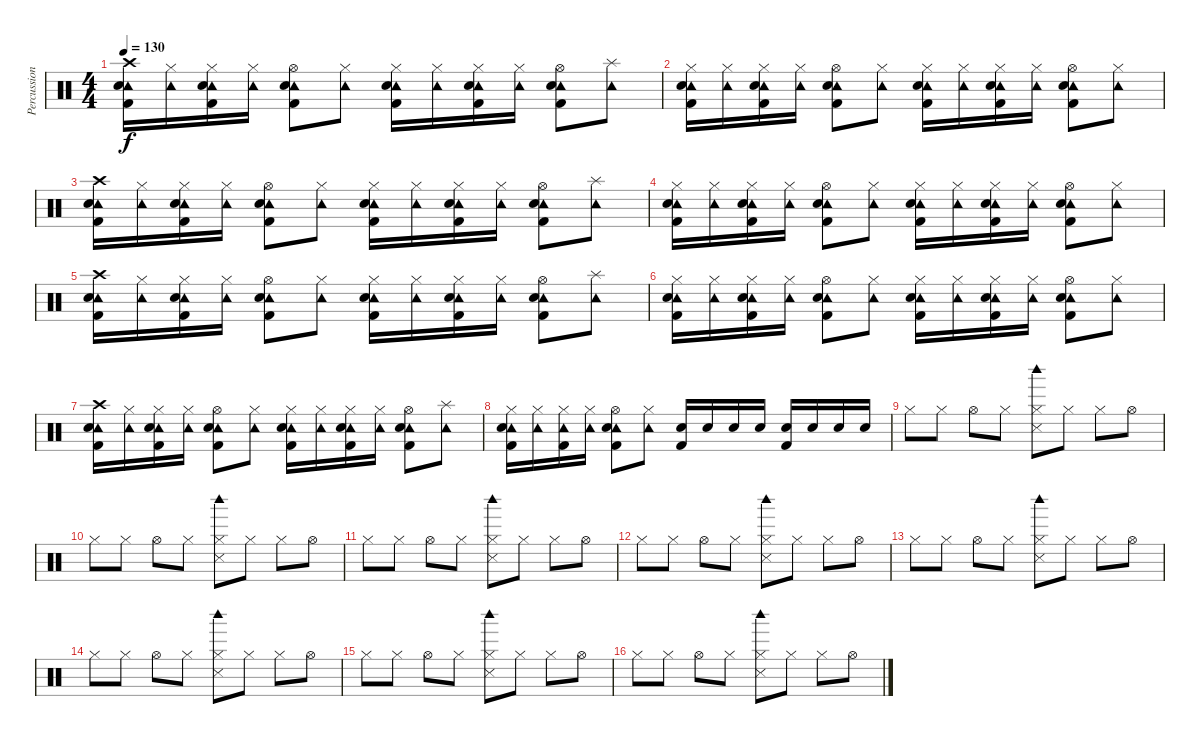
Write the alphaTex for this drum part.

\track ("Percussion" "Percussion") {instrument percussion}
\staff {score}
\articulation defaults
\ts (4 4)
\tempo 130
\clef neutral
\ks c
("Crash high (hit)" "Tambourine (hit)" "Electric Snare (hit)" "Kick (hit) 2").16{dy f volume 16} ("Hi-Hat (closed)" "Tambourine (hit)").16 ("Hi-Hat (closed)" "Tambourine (hit)" "Electric Snare (hit)" "Kick (hit) 2").16 ("Hi-Hat (closed)" "Tambourine (hit)").16 ("Hi-Hat (open)" "Tambourine (hit)" "Electric Snare (hit)" "Kick (hit) 2").8 ("Hi-Hat (closed)" "Tambourine (hit)").8 ("Hi-Hat (closed)" "Tambourine (hit)" "Electric Snare (hit)" "Kick (hit) 2").16 ("Hi-Hat (closed)" "Tambourine (hit)").16 ("Hi-Hat (closed)" "Tambourine (hit)" "Electric Snare (hit)" "Kick (hit) 2").16 ("Hi-Hat (closed)" "Tambourine (hit)").16 ("Hi-Hat (open)" "Tambourine (hit)" "Electric Snare (hit)" "Kick (hit) 2").8 ("Splash (hit)" "Tambourine (hit)").8 |
("Hi-Hat (closed)" "Tambourine (hit)" "Electric Snare (hit)" "Kick (hit) 2").16 ("Hi-Hat (closed)" "Tambourine (hit)").16 ("Hi-Hat (closed)" "Tambourine (hit)" "Electric Snare (hit)" "Kick (hit) 2").16 ("Hi-Hat (closed)" "Tambourine (hit)").16 ("Hi-Hat (open)" "Tambourine (hit)" "Electric Snare (hit)" "Kick (hit) 2").8 ("Hi-Hat (closed)" "Tambourine (hit)").8 ("Hi-Hat (closed)" "Tambourine (hit)" "Electric Snare (hit)" "Kick (hit) 2").16 ("Hi-Hat (closed)" "Tambourine (hit)").16 ("Hi-Hat (closed)" "Tambourine (hit)" "Electric Snare (hit)" "Kick (hit) 2").16 ("Hi-Hat (closed)" "Tambourine (hit)").16 ("Hi-Hat (open)" "Tambourine (hit)" "Electric Snare (hit)" "Kick (hit) 2").8 ("Hi-Hat (closed)" "Tambourine (hit)").8 |
("Crash high (hit)" "Tambourine (hit)" "Electric Snare (hit)" "Kick (hit) 2").16{volume 16} ("Hi-Hat (closed)" "Tambourine (hit)").16 ("Hi-Hat (closed)" "Tambourine (hit)" "Electric Snare (hit)" "Kick (hit) 2").16 ("Hi-Hat (closed)" "Tambourine (hit)").16 ("Hi-Hat (open)" "Tambourine (hit)" "Electric Snare (hit)" "Kick (hit) 2").8 ("Hi-Hat (closed)" "Tambourine (hit)").8 ("Hi-Hat (closed)" "Tambourine (hit)" "Electric Snare (hit)" "Kick (hit) 2").16 ("Hi-Hat (closed)" "Tambourine (hit)").16 ("Hi-Hat (closed)" "Tambourine (hit)" "Electric Snare (hit)" "Kick (hit) 2").16 ("Hi-Hat (closed)" "Tambourine (hit)").16 ("Hi-Hat (open)" "Tambourine (hit)" "Electric Snare (hit)" "Kick (hit) 2").8 ("Splash (hit)" "Tambourine (hit)").8 |
("Hi-Hat (closed)" "Tambourine (hit)" "Electric Snare (hit)" "Kick (hit) 2").16 ("Hi-Hat (closed)" "Tambourine (hit)").16 ("Hi-Hat (closed)" "Tambourine (hit)" "Electric Snare (hit)" "Kick (hit) 2").16 ("Hi-Hat (closed)" "Tambourine (hit)").16 ("Hi-Hat (open)" "Tambourine (hit)" "Electric Snare (hit)" "Kick (hit) 2").8 ("Hi-Hat (closed)" "Tambourine (hit)").8 ("Hi-Hat (closed)" "Tambourine (hit)" "Electric Snare (hit)" "Kick (hit) 2").16 ("Hi-Hat (closed)" "Tambourine (hit)").16 ("Hi-Hat (closed)" "Tambourine (hit)" "Electric Snare (hit)" "Kick (hit) 2").16 ("Hi-Hat (closed)" "Tambourine (hit)").16 ("Hi-Hat (open)" "Tambourine (hit)" "Electric Snare (hit)" "Kick (hit) 2").8 ("Hi-Hat (closed)" "Tambourine (hit)").8 |
("Crash high (hit)" "Tambourine (hit)" "Electric Snare (hit)" "Kick (hit) 2").16{volume 16} ("Hi-Hat (closed)" "Tambourine (hit)").16 ("Hi-Hat (closed)" "Tambourine (hit)" "Electric Snare (hit)" "Kick (hit) 2").16 ("Hi-Hat (closed)" "Tambourine (hit)").16 ("Hi-Hat (open)" "Tambourine (hit)" "Electric Snare (hit)" "Kick (hit) 2").8 ("Hi-Hat (closed)" "Tambourine (hit)").8 ("Hi-Hat (closed)" "Tambourine (hit)" "Electric Snare (hit)" "Kick (hit) 2").16 ("Hi-Hat (closed)" "Tambourine (hit)").16 ("Hi-Hat (closed)" "Tambourine (hit)" "Electric Snare (hit)" "Kick (hit) 2").16 ("Hi-Hat (closed)" "Tambourine (hit)").16 ("Hi-Hat (open)" "Tambourine (hit)" "Electric Snare (hit)" "Kick (hit) 2").8 ("Splash (hit)" "Tambourine (hit)").8 |
("Hi-Hat (closed)" "Tambourine (hit)" "Electric Snare (hit)" "Kick (hit) 2").16 ("Hi-Hat (closed)" "Tambourine (hit)").16 ("Hi-Hat (closed)" "Tambourine (hit)" "Electric Snare (hit)" "Kick (hit) 2").16 ("Hi-Hat (closed)" "Tambourine (hit)").16 ("Hi-Hat (open)" "Tambourine (hit)" "Electric Snare (hit)" "Kick (hit) 2").8 ("Hi-Hat (closed)" "Tambourine (hit)").8 ("Hi-Hat (closed)" "Tambourine (hit)" "Electric Snare (hit)" "Kick (hit) 2").16 ("Hi-Hat (closed)" "Tambourine (hit)").16 ("Hi-Hat (closed)" "Tambourine (hit)" "Electric Snare (hit)" "Kick (hit) 2").16 ("Hi-Hat (closed)" "Tambourine (hit)").16 ("Hi-Hat (open)" "Tambourine (hit)" "Electric Snare (hit)" "Kick (hit) 2").8 ("Hi-Hat (closed)" "Tambourine (hit)").8 |
("Crash high (hit)" "Tambourine (hit)" "Electric Snare (hit)" "Kick (hit) 2").16{volume 16} ("Hi-Hat (closed)" "Tambourine (hit)").16 ("Hi-Hat (closed)" "Tambourine (hit)" "Electric Snare (hit)" "Kick (hit) 2").16 ("Hi-Hat (closed)" "Tambourine (hit)").16 ("Hi-Hat (open)" "Tambourine (hit)" "Electric Snare (hit)" "Kick (hit) 2").8 ("Hi-Hat (closed)" "Tambourine (hit)").8 ("Hi-Hat (closed)" "Tambourine (hit)" "Electric Snare (hit)" "Kick (hit) 2").16 ("Hi-Hat (closed)" "Tambourine (hit)").16 ("Hi-Hat (closed)" "Tambourine (hit)" "Electric Snare (hit)" "Kick (hit) 2").16 ("Hi-Hat (closed)" "Tambourine (hit)").16 ("Hi-Hat (open)" "Tambourine (hit)" "Electric Snare (hit)" "Kick (hit) 2").8 ("Splash (hit)" "Tambourine (hit)").8 |
("Hi-Hat (closed)" "Tambourine (hit)" "Electric Snare (hit)" "Kick (hit) 2").16 ("Hi-Hat (closed)" "Tambourine (hit)").16 ("Hi-Hat (closed)" "Tambourine (hit)" "Kick (hit) 2").16 ("Hi-Hat (closed)" "Tambourine (hit)").16 ("Hi-Hat (open)" "Tambourine (hit)" "Electric Snare (hit)" "Kick (hit) 2").8 ("Hi-Hat (closed)" "Tambourine (hit)").8 ("Snare (hit) 2" "Kick (hit) 2").16 "Snare (hit) 2".16 "Snare (hit) 2".16 "Snare (hit) 2".16 ("Snare (hit) 2" "Kick (hit) 2").16 "Snare (hit) 2".16 "Snare (hit) 2".16 "Snare (hit) 2".16 |
"Hi-Hat (closed)".8 "Hi-Hat (closed)".8 "Hi-Hat (open)".8 "Hi-Hat (closed)".8 ("Hi-Hat (closed)" "Snare (side stick) 3" "Woodblock high (hit)").8 "Hi-Hat (closed)".8 "Hi-Hat (closed)".8 "Hi-Hat (open)".8 |
"Hi-Hat (closed)".8 "Hi-Hat (closed)".8 "Hi-Hat (open)".8 "Hi-Hat (closed)".8 ("Hi-Hat (closed)" "Snare (side stick) 3" "Woodblock high (hit)").8 "Hi-Hat (closed)".8 "Hi-Hat (closed)".8 "Hi-Hat (open)".8 |
"Hi-Hat (closed)".8 "Hi-Hat (closed)".8 "Hi-Hat (open)".8 "Hi-Hat (closed)".8 ("Hi-Hat (closed)" "Snare (side stick) 3" "Woodblock high (hit)").8 "Hi-Hat (closed)".8 "Hi-Hat (closed)".8 "Hi-Hat (open)".8 |
"Hi-Hat (closed)".8 "Hi-Hat (closed)".8 "Hi-Hat (open)".8 "Hi-Hat (closed)".8 ("Hi-Hat (closed)" "Snare (side stick) 3" "Woodblock high (hit)").8 "Hi-Hat (closed)".8 "Hi-Hat (closed)".8 "Hi-Hat (open)".8 |
"Hi-Hat (closed)".8 "Hi-Hat (closed)".8 "Hi-Hat (open)".8 "Hi-Hat (closed)".8 ("Hi-Hat (closed)" "Snare (side stick) 3" "Woodblock high (hit)").8 "Hi-Hat (closed)".8 "Hi-Hat (closed)".8 "Hi-Hat (open)".8 |
"Hi-Hat (closed)".8 "Hi-Hat (closed)".8 "Hi-Hat (open)".8 "Hi-Hat (closed)".8 ("Hi-Hat (closed)" "Snare (side stick) 3" "Woodblock high (hit)").8 "Hi-Hat (closed)".8 "Hi-Hat (closed)".8 "Hi-Hat (open)".8 |
"Hi-Hat (closed)".8 "Hi-Hat (closed)".8 "Hi-Hat (open)".8 "Hi-Hat (closed)".8 ("Hi-Hat (closed)" "Snare (side stick) 3" "Woodblock high (hit)").8 "Hi-Hat (closed)".8 "Hi-Hat (closed)".8 "Hi-Hat (open)".8 |
"Hi-Hat (closed)".8 "Hi-Hat (closed)".8 "Hi-Hat (open)".8 "Hi-Hat (closed)".8 ("Hi-Hat (closed)" "Snare (side stick) 3" "Woodblock high (hit)").8 "Hi-Hat (closed)".8 "Hi-Hat (closed)".8 "Hi-Hat (open)".8
